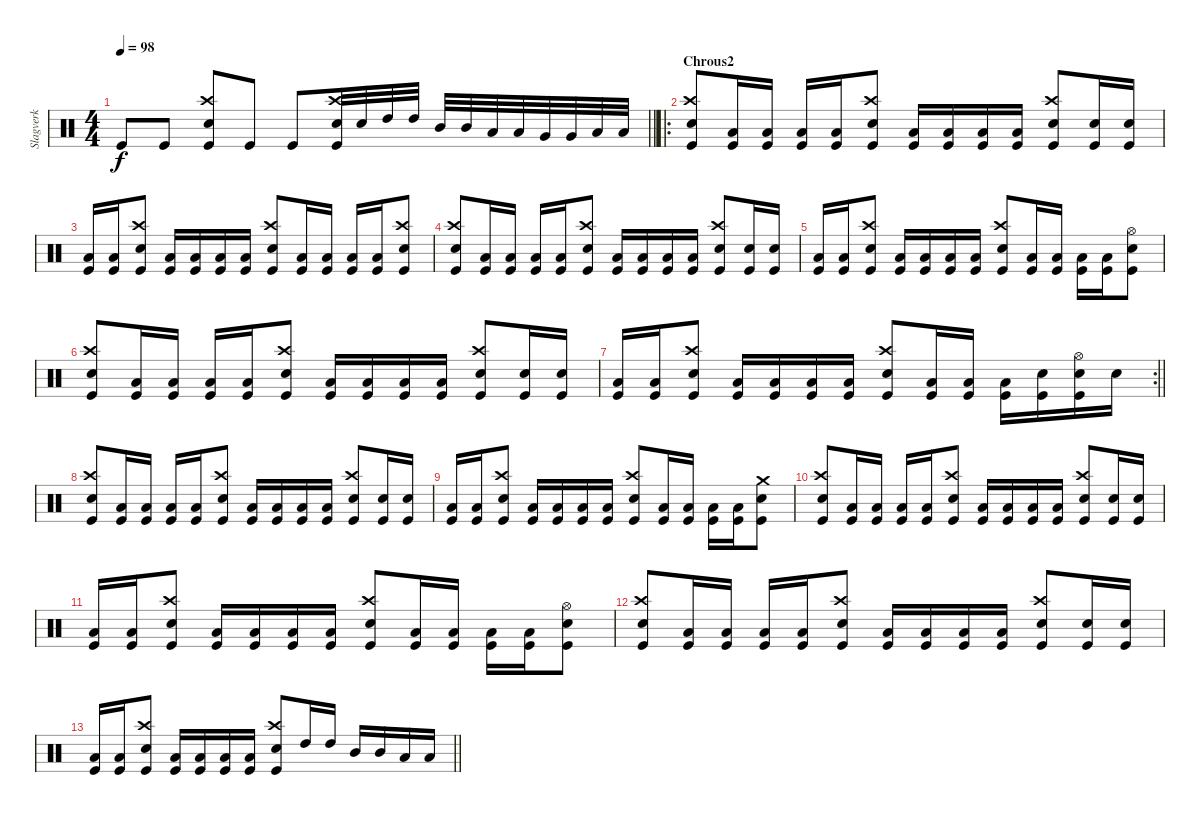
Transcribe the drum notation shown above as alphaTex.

\track ("Slagverk" "Slagverk") {instrument percussion}
\staff {score}
\articulation defaults
\ts (4 4)
\tempo 98
\clef neutral
\barLineRight lightlight
\ks c "Kick (hit)".8{dy f} "Kick (hit)".8
("Crash high (hit)" "Snare (hit) 2" "Kick (hit)").8 "Kick (hit)".8 "Kick (hit)".8 ("Crash high (hit)" "Snare (hit) 2" "Kick (hit)").32 "Snare (hit) 2".32 "High Tom (hit)".32 "High Tom (hit)".32 "Mid Tom (hit)".32 "Mid Tom (hit)".32 "Low Tom (hit)".32 "Low Tom (hit)".32 "Very Low Tom (hit)".32 "Very Low Tom (hit)".32 "Low Floor Tom (hit)".32 "Low Floor Tom (hit)".32 |
\ro
\section ("" "Chrous2")
("Crash high (hit)" "Snare (hit) 2" "Kick (hit)").8 ("Low Tom (hit)" "Kick (hit)").16 ("Low Floor Tom (hit)" "Kick (hit)").16 ("Low Tom (hit)" "Kick (hit)").16 ("Low Floor Tom (hit)" "Kick (hit)").16 ("Crash high (hit)" "Snare (hit) 2" "Kick (hit)").8 ("Low Tom (hit)" "Kick (hit)").16 ("Low Floor Tom (hit)" "Kick (hit)").16 ("Low Tom (hit)" "Kick (hit)").16 ("Low Floor Tom (hit)" "Kick (hit)").16 ("Crash high (hit)" "Snare (hit) 2" "Kick (hit)").8 ("Snare (hit) 2" "Kick (hit)").16 ("Snare (hit) 2" "Kick (hit)").16 |
("Low Tom (hit)" "Kick (hit)").16 ("Low Floor Tom (hit)" "Kick (hit)").16 ("Crash high (hit)" "Snare (hit) 2" "Kick (hit)").8 ("Low Tom (hit)" "Kick (hit)").16 ("Low Floor Tom (hit)" "Kick (hit)").16 ("Low Tom (hit)" "Kick (hit)").16 ("Low Floor Tom (hit)" "Kick (hit)").16 ("Crash high (hit)" "Snare (hit) 2" "Kick (hit)").8 ("Low Tom (hit)" "Kick (hit)").16 ("Low Floor Tom (hit)" "Kick (hit)").16 ("Low Tom (hit)" "Kick (hit)").16 ("Low Floor Tom (hit)" "Kick (hit)").16 ("Crash high (hit)" "Snare (hit) 2" "Kick (hit)").8 |
("Crash high (hit)" "Snare (hit) 2" "Kick (hit)").8 ("Low Tom (hit)" "Kick (hit)").16 ("Low Floor Tom (hit)" "Kick (hit)").16 ("Low Tom (hit)" "Kick (hit)").16 ("Low Floor Tom (hit)" "Kick (hit)").16 ("Crash high (hit)" "Snare (hit) 2" "Kick (hit)").8 ("Low Tom (hit)" "Kick (hit)").16 ("Low Floor Tom (hit)" "Kick (hit)").16 ("Low Tom (hit)" "Kick (hit)").16 ("Low Floor Tom (hit)" "Kick (hit)").16 ("Crash high (hit)" "Snare (hit) 2" "Kick (hit)").8 ("Snare (hit) 2" "Kick (hit)").16 ("Snare (hit) 2" "Kick (hit)").16 |
("Low Tom (hit)" "Kick (hit)").16 ("Low Floor Tom (hit)" "Kick (hit)").16 ("Crash high (hit)" "Snare (hit) 2" "Kick (hit)").8 ("Low Tom (hit)" "Kick (hit)").16 ("Low Floor Tom (hit)" "Kick (hit)").16 ("Low Tom (hit)" "Kick (hit)").16 ("Low Floor Tom (hit)" "Kick (hit)").16 ("Crash high (hit)" "Snare (hit) 2" "Kick (hit)").8 ("Low Tom (hit)" "Kick (hit)").16 ("Low Floor Tom (hit)" "Kick (hit)").16 ("Low Tom (hit)" "Kick (hit)").16 ("Low Floor Tom (hit)" "Kick (hit)").16 ("Hi-Hat (open)" "Snare (hit) 2" "Kick (hit)").8 |
("Crash high (hit)" "Snare (hit) 2" "Kick (hit)").8 ("Low Tom (hit)" "Kick (hit)").16 ("Low Floor Tom (hit)" "Kick (hit)").16 ("Low Tom (hit)" "Kick (hit)").16 ("Low Floor Tom (hit)" "Kick (hit)").16 ("Crash high (hit)" "Snare (hit) 2" "Kick (hit)").8 ("Low Tom (hit)" "Kick (hit)").16 ("Low Floor Tom (hit)" "Kick (hit)").16 ("Low Tom (hit)" "Kick (hit)").16 ("Low Floor Tom (hit)" "Kick (hit)").16 ("Crash high (hit)" "Snare (hit) 2" "Kick (hit)").8 ("Snare (hit) 2" "Kick (hit)").16 ("Snare (hit) 2" "Kick (hit)").16 |
\rc 2
\barLineRight lightlight
("Low Tom (hit)" "Kick (hit)").16 ("Low Floor Tom (hit)" "Kick (hit)").16 ("Crash high (hit)" "Snare (hit) 2" "Kick (hit)").8 ("Low Tom (hit)" "Kick (hit)").16 ("Low Floor Tom (hit)" "Kick (hit)").16 ("Low Tom (hit)" "Kick (hit)").16 ("Low Floor Tom (hit)" "Kick (hit)").16 ("Crash high (hit)" "Snare (hit) 2" "Kick (hit)").8 ("Low Tom (hit)" "Kick (hit)").16 ("Low Floor Tom (hit)" "Kick (hit)").16 ("Low Tom (hit)" "Kick (hit)").16 ("Snare (hit) 2" "Kick (hit)").16 ("Hi-Hat (open)" "Snare (hit) 2" "Kick (hit)").16 "Snare (hit) 2".16 |
("Crash high (hit)" "Snare (hit) 2" "Kick (hit)").8 ("Low Tom (hit)" "Kick (hit)").16 ("Low Floor Tom (hit)" "Kick (hit)").16 ("Low Tom (hit)" "Kick (hit)").16 ("Low Floor Tom (hit)" "Kick (hit)").16 ("Crash high (hit)" "Snare (hit) 2" "Kick (hit)").8 ("Low Tom (hit)" "Kick (hit)").16 ("Low Floor Tom (hit)" "Kick (hit)").16 ("Low Tom (hit)" "Kick (hit)").16 ("Low Floor Tom (hit)" "Kick (hit)").16 ("Crash high (hit)" "Snare (hit) 2" "Kick (hit)").8 ("Snare (hit) 2" "Kick (hit)").16 ("Snare (hit) 2" "Kick (hit)").16 |
("Low Tom (hit)" "Kick (hit)").16 ("Low Floor Tom (hit)" "Kick (hit)").16 ("Crash high (hit)" "Snare (hit) 2" "Kick (hit)").8 ("Low Tom (hit)" "Kick (hit)").16 ("Low Floor Tom (hit)" "Kick (hit)").16 ("Low Tom (hit)" "Kick (hit)").16 ("Low Floor Tom (hit)" "Kick (hit)").16 ("Crash high (hit)" "Snare (hit) 2" "Kick (hit)").8 ("Low Tom (hit)" "Kick (hit)").16 ("Low Floor Tom (hit)" "Kick (hit)").16 ("Low Tom (hit)" "Kick (hit)").16 ("Low Floor Tom (hit)" "Kick (hit)").16 ("Crash medium (hit)" "Snare (hit) 2" "Kick (hit)").8 |
("Crash high (hit)" "Snare (hit) 2" "Kick (hit)").8 ("Low Tom (hit)" "Kick (hit)").16 ("Low Floor Tom (hit)" "Kick (hit)").16 ("Low Tom (hit)" "Kick (hit)").16 ("Low Floor Tom (hit)" "Kick (hit)").16 ("Crash high (hit)" "Snare (hit) 2" "Kick (hit)").8 ("Low Tom (hit)" "Kick (hit)").16 ("Low Floor Tom (hit)" "Kick (hit)").16 ("Low Tom (hit)" "Kick (hit)").16 ("Low Floor Tom (hit)" "Kick (hit)").16 ("Crash high (hit)" "Snare (hit) 2" "Kick (hit)").8 ("Snare (hit) 2" "Kick (hit)").16 ("Snare (hit) 2" "Kick (hit)").16 |
("Low Tom (hit)" "Kick (hit)").16 ("Low Floor Tom (hit)" "Kick (hit)").16 ("Crash high (hit)" "Snare (hit) 2" "Kick (hit)").8 ("Low Tom (hit)" "Kick (hit)").16 ("Low Floor Tom (hit)" "Kick (hit)").16 ("Low Tom (hit)" "Kick (hit)").16 ("Low Floor Tom (hit)" "Kick (hit)").16 ("Crash high (hit)" "Snare (hit) 2" "Kick (hit)").8 ("Low Tom (hit)" "Kick (hit)").16 ("Low Floor Tom (hit)" "Kick (hit)").16 ("Low Tom (hit)" "Kick (hit)").16 ("Low Floor Tom (hit)" "Kick (hit)").16 ("Hi-Hat (open)" "Snare (hit) 2" "Kick (hit)").8 |
("Crash high (hit)" "Snare (hit) 2" "Kick (hit)").8 ("Low Tom (hit)" "Kick (hit)").16 ("Low Floor Tom (hit)" "Kick (hit)").16 ("Low Tom (hit)" "Kick (hit)").16 ("Low Floor Tom (hit)" "Kick (hit)").16 ("Crash high (hit)" "Snare (hit) 2" "Kick (hit)").8 ("Low Tom (hit)" "Kick (hit)").16 ("Low Floor Tom (hit)" "Kick (hit)").16 ("Low Tom (hit)" "Kick (hit)").16 ("Low Floor Tom (hit)" "Kick (hit)").16 ("Crash high (hit)" "Snare (hit) 2" "Kick (hit)").8 ("Snare (hit) 2" "Kick (hit)").16 ("Snare (hit) 2" "Kick (hit)").16 |
\barLineRight lightlight
("Low Tom (hit)" "Kick (hit)").16 ("Low Floor Tom (hit)" "Kick (hit)").16 ("Crash high (hit)" "Snare (hit) 2" "Kick (hit)").8 ("Low Tom (hit)" "Kick (hit)").16 ("Low Floor Tom (hit)" "Kick (hit)").16 ("Low Tom (hit)" "Kick (hit)").16 ("Low Floor Tom (hit)" "Kick (hit)").16 ("Crash high (hit)" "Snare (hit) 2" "Kick (hit)").8 "High Tom (hit)".16 "High Tom (hit)".16 "Mid Tom (hit)".16 "Mid Tom (hit)".16 "Low Tom (hit)".16 "Low Tom (hit)".16
